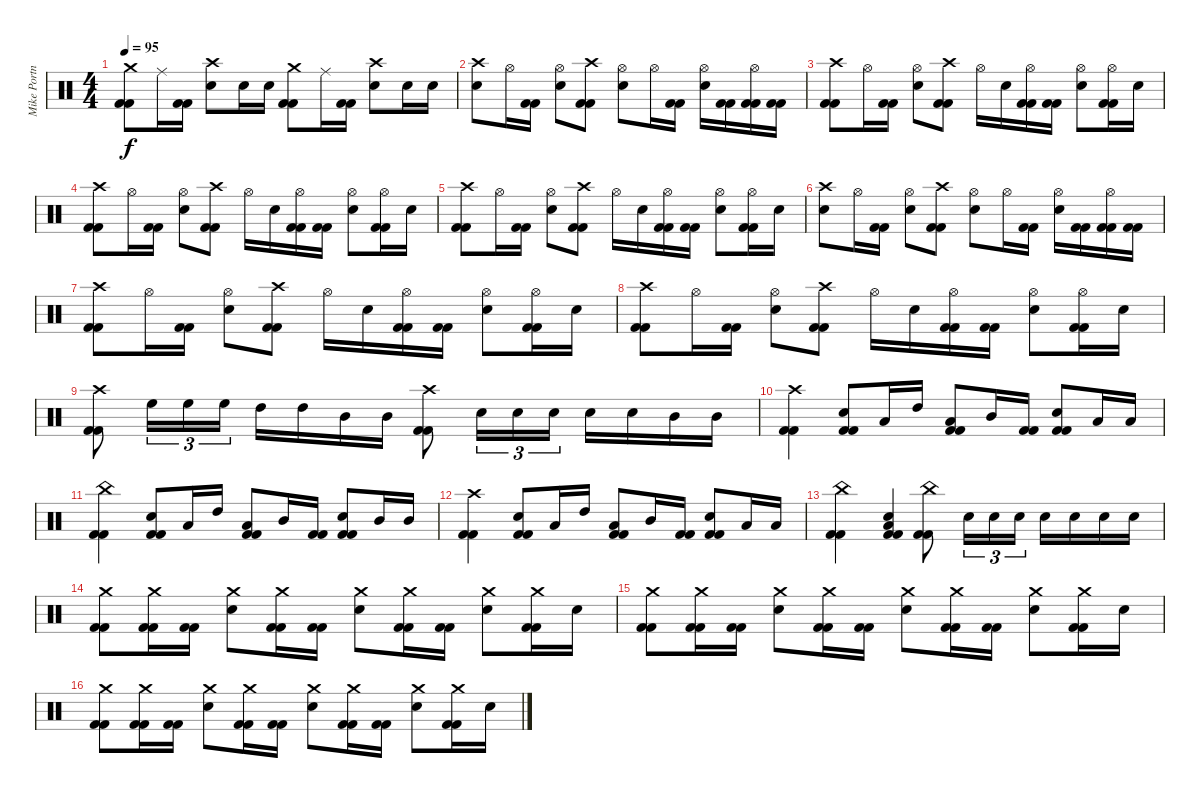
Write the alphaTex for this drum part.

\track ("Mike Portnoy" "Mike Portn") {instrument percussion}
\staff {score}
\articulation defaults
\ts (4 4)
\tempo 95
\clef neutral
\ks c
("Crash medium (hit)" "Kick (hit) 2" "Kick (hit) 2").8{dy f} "Ride (middle)".16 ("Kick (hit) 2" "Kick (hit) 2").16 ("Crash high (hit)" "Snare (hit) 2").8 "Snare (hit) 2".16 "Snare (hit) 2".16 ("Crash medium (hit)" "Kick (hit) 2" "Kick (hit) 2").8 "Ride (middle)".16 ("Kick (hit) 2" "Kick (hit) 2").16 ("Crash high (hit)" "Snare (hit) 2").8 "Snare (hit) 2".16 "Snare (hit) 2".16 |
("Crash high (hit)" "Snare (hit) 2").8 "Hi-Hat (open)".16 ("Kick (hit) 2" "Kick (hit) 2").16 ("Hi-Hat (open)" "Snare (hit) 2").8 ("Crash high (hit)" "Kick (hit) 2" "Kick (hit) 2").8 ("Hi-Hat (open)" "Snare (hit) 2").8 "Hi-Hat (open)".16 ("Kick (hit) 2" "Kick (hit) 2").16 ("Hi-Hat (open)" "Snare (hit) 2").16 ("Kick (hit) 2" "Kick (hit) 2").16 ("Hi-Hat (open)" "Kick (hit) 2" "Kick (hit) 2").16 ("Kick (hit) 2" "Kick (hit) 2").16 |
("Crash high (hit)" "Kick (hit) 2" "Kick (hit) 2").8 "Hi-Hat (open)".16 ("Kick (hit) 2" "Kick (hit) 2").16 ("Hi-Hat (open)" "Snare (hit) 2").8 ("Crash high (hit)" "Kick (hit) 2" "Kick (hit) 2").8 "Hi-Hat (open)".16 "Snare (hit) 2".16 ("Hi-Hat (open)" "Kick (hit) 2" "Kick (hit) 2").16 ("Kick (hit) 2" "Kick (hit) 2").16 ("Hi-Hat (open)" "Snare (hit) 2").8 ("Hi-Hat (open)" "Kick (hit) 2" "Kick (hit) 2").16 "Snare (hit) 2".16 |
("Crash high (hit)" "Kick (hit) 2" "Kick (hit) 2").8 "Hi-Hat (open)".16 ("Kick (hit) 2" "Kick (hit) 2").16 ("Hi-Hat (open)" "Snare (hit) 2").8 ("Crash high (hit)" "Kick (hit) 2" "Kick (hit) 2").8 "Hi-Hat (open)".16 "Snare (hit) 2".16 ("Hi-Hat (open)" "Kick (hit) 2" "Kick (hit) 2").16 ("Kick (hit) 2" "Kick (hit) 2").16 ("Hi-Hat (open)" "Snare (hit) 2").8 ("Hi-Hat (open)" "Kick (hit) 2" "Kick (hit) 2").16 "Snare (hit) 2".16 |
("Crash high (hit)" "Kick (hit) 2" "Kick (hit) 2").8 "Hi-Hat (open)".16 ("Kick (hit) 2" "Kick (hit) 2").16 ("Hi-Hat (open)" "Snare (hit) 2").8 ("Crash high (hit)" "Kick (hit) 2" "Kick (hit) 2").8 "Hi-Hat (open)".16 "Snare (hit) 2".16 ("Hi-Hat (open)" "Kick (hit) 2" "Kick (hit) 2").16 ("Kick (hit) 2" "Kick (hit) 2").16 ("Hi-Hat (open)" "Snare (hit) 2").8 ("Hi-Hat (open)" "Kick (hit) 2" "Kick (hit) 2").16 "Snare (hit) 2".16 |
("Crash high (hit)" "Snare (hit) 2").8 "Hi-Hat (open)".16 ("Kick (hit) 2" "Kick (hit) 2").16 ("Hi-Hat (open)" "Snare (hit) 2").8 ("Crash high (hit)" "Kick (hit) 2" "Kick (hit) 2").8 ("Hi-Hat (open)" "Snare (hit) 2").8 "Hi-Hat (open)".16 ("Kick (hit) 2" "Kick (hit) 2").16 ("Hi-Hat (open)" "Snare (hit) 2").16 ("Kick (hit) 2" "Kick (hit) 2").16 ("Hi-Hat (open)" "Kick (hit) 2" "Kick (hit) 2").16 ("Kick (hit) 2" "Kick (hit) 2").16 |
("Crash high (hit)" "Kick (hit) 2" "Kick (hit) 2").8 "Hi-Hat (open)".16 ("Kick (hit) 2" "Kick (hit) 2").16 ("Hi-Hat (open)" "Snare (hit) 2").8 ("Crash high (hit)" "Kick (hit) 2" "Kick (hit) 2").8 "Hi-Hat (open)".16 "Snare (hit) 2".16 ("Hi-Hat (open)" "Kick (hit) 2" "Kick (hit) 2").16 ("Kick (hit) 2" "Kick (hit) 2").16 ("Hi-Hat (open)" "Snare (hit) 2").8 ("Hi-Hat (open)" "Kick (hit) 2" "Kick (hit) 2").16 "Snare (hit) 2".16 |
("Crash high (hit)" "Kick (hit) 2" "Kick (hit) 2").8 "Hi-Hat (open)".16 ("Kick (hit) 2" "Kick (hit) 2").16 ("Hi-Hat (open)" "Snare (hit) 2").8 ("Crash high (hit)" "Kick (hit) 2" "Kick (hit) 2").8 "Hi-Hat (open)".16 "Snare (hit) 2".16 ("Hi-Hat (open)" "Kick (hit) 2" "Kick (hit) 2").16 ("Kick (hit) 2" "Kick (hit) 2").16 ("Hi-Hat (open)" "Snare (hit) 2").8 ("Hi-Hat (open)" "Kick (hit) 2" "Kick (hit) 2").16 "Snare (hit) 2".16 |
("Crash high (hit)" "Kick (hit) 2" "Kick (hit) 2").8 "High Floor Tom (hit)".16{tu (3 2)} "High Floor Tom (hit)".16{tu (3 2)} "High Floor Tom (hit)".16{tu (3 2)} "High Tom (hit)".16 "High Tom (hit)".16 "Mid Tom (hit)".16 "Mid Tom (hit)".16 ("Crash high (hit)" "Kick (hit) 2" "Kick (hit) 2").8 "Snare (hit) 2".16{tu (3 2)} "Snare (hit) 2".16{tu (3 2)} "Snare (hit) 2".16{tu (3 2)} "Snare (hit) 2".16 "Snare (hit) 2".16 "Mid Tom (hit)".16 "Mid Tom (hit)".16 |
("Crash high (hit)" "Kick (hit) 2" "Kick (hit) 2").4 ("Snare (hit) 2" "Kick (hit) 2" "Kick (hit) 2").8 "Low Tom (hit)".16 "High Tom (hit)".16 ("Low Tom (hit)" "Kick (hit) 2" "Kick (hit) 2").8 "Mid Tom (hit)".16 ("Kick (hit) 2" "Kick (hit) 2").16 ("Snare (hit) 2" "Kick (hit) 2" "Kick (hit) 2").8 "Low Tom (hit)".16 "Low Tom (hit)".16 |
("China (hit)" "Kick (hit) 2" "Kick (hit) 2").4 ("Snare (hit) 2" "Kick (hit) 2" "Kick (hit) 2").8 "Low Tom (hit)".16 "High Tom (hit)".16 ("Low Tom (hit)" "Kick (hit) 2" "Kick (hit) 2").8 "Mid Tom (hit)".16 ("Kick (hit) 2" "Kick (hit) 2").16 ("Snare (hit) 2" "Kick (hit) 2" "Kick (hit) 2").8 "Mid Tom (hit)".16 "Mid Tom (hit)".16 |
("Crash high (hit)" "Kick (hit) 2" "Kick (hit) 2").4 ("Snare (hit) 2" "Kick (hit) 2" "Kick (hit) 2").8 "Low Tom (hit)".16 "High Tom (hit)".16 ("Low Tom (hit)" "Kick (hit) 2" "Kick (hit) 2").8 "Mid Tom (hit)".16 ("Kick (hit) 2" "Kick (hit) 2").16 ("Snare (hit) 2" "Kick (hit) 2" "Kick (hit) 2").8 "Low Tom (hit)".16 "Low Tom (hit)".16 |
("China (hit)" "Kick (hit) 2" "Kick (hit) 2").4 ("Snare (hit) 2" "Low Tom (hit)" "Kick (hit) 2" "Kick (hit) 2").4 ("China (hit)" "Kick (hit) 2" "Kick (hit) 2").8 "Snare (hit) 2".16{tu (3 2)} "Snare (hit) 2".16{tu (3 2)} "Snare (hit) 2".16{tu (3 2)} "Snare (hit) 2".16 "Snare (hit) 2".16 "Snare (hit) 2".16 "Snare (hit) 2".16 |
("Crash medium (hit)" "Kick (hit) 2" "Kick (hit) 2").8 ("Crash medium (hit)" "Kick (hit) 2" "Kick (hit) 2").16 ("Kick (hit) 2" "Kick (hit) 2").16 ("Crash medium (hit)" "Snare (hit) 2").8 ("Crash medium (hit)" "Kick (hit) 2" "Kick (hit) 2").16 ("Kick (hit) 2" "Kick (hit) 2").16 ("Crash medium (hit)" "Snare (hit) 2").8 ("Crash medium (hit)" "Kick (hit) 2" "Kick (hit) 2").16 ("Kick (hit) 2" "Kick (hit) 2").16 ("Crash medium (hit)" "Snare (hit) 2").8 ("Crash medium (hit)" "Kick (hit) 2" "Kick (hit) 2").16 "Snare (hit) 2".16 |
("Crash medium (hit)" "Kick (hit) 2" "Kick (hit) 2").8 ("Crash medium (hit)" "Kick (hit) 2" "Kick (hit) 2").16 ("Kick (hit) 2" "Kick (hit) 2").16 ("Crash medium (hit)" "Snare (hit) 2").8 ("Crash medium (hit)" "Kick (hit) 2" "Kick (hit) 2").16 ("Kick (hit) 2" "Kick (hit) 2").16 ("Crash medium (hit)" "Snare (hit) 2").8 ("Crash medium (hit)" "Kick (hit) 2" "Kick (hit) 2").16 ("Kick (hit) 2" "Kick (hit) 2").16 ("Crash medium (hit)" "Snare (hit) 2").8 ("Crash medium (hit)" "Kick (hit) 2" "Kick (hit) 2").16 "Snare (hit) 2".16 |
("Crash medium (hit)" "Kick (hit) 2" "Kick (hit) 2").8 ("Crash medium (hit)" "Kick (hit) 2" "Kick (hit) 2").16 ("Kick (hit) 2" "Kick (hit) 2").16 ("Crash medium (hit)" "Snare (hit) 2").8 ("Crash medium (hit)" "Kick (hit) 2" "Kick (hit) 2").16 ("Kick (hit) 2" "Kick (hit) 2").16 ("Crash medium (hit)" "Snare (hit) 2").8 ("Crash medium (hit)" "Kick (hit) 2" "Kick (hit) 2").16 ("Kick (hit) 2" "Kick (hit) 2").16 ("Crash medium (hit)" "Snare (hit) 2").8 ("Crash medium (hit)" "Kick (hit) 2" "Kick (hit) 2").16 "Snare (hit) 2".16
